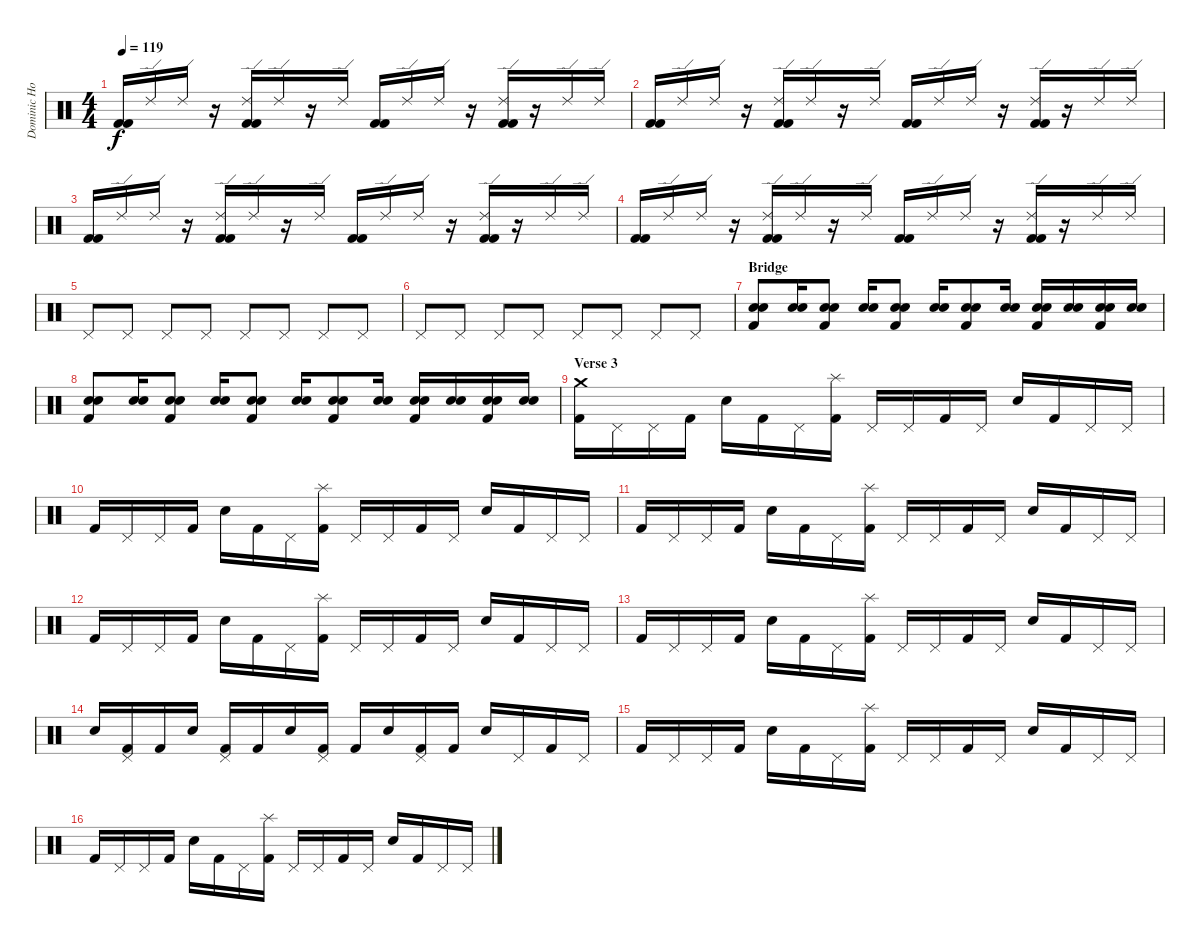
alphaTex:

\track ("Dominic Howard" "Dominic Ho") {instrument percussion}
\staff {score}
\articulation defaults
\ts (4 4)
\tempo 119
\clef neutral
\ks c
("Kick (hit) 2" "Kick (hit) 2").16{dy f} "Ride (edge) 2".16 "Ride (edge) 2".16 r.16 ("Ride (edge) 2" "Kick (hit) 2" "Kick (hit) 2").16 "Ride (edge) 2".16 r.16 "Ride (edge) 2".16 ("Kick (hit) 2" "Kick (hit) 2").16 "Ride (edge) 2".16 "Ride (edge) 2".16 r.16 ("Ride (edge) 2" "Kick (hit) 2" "Kick (hit) 2").16 r.16 "Ride (edge) 2".16 "Ride (edge) 2".16 |
("Kick (hit) 2" "Kick (hit) 2").16 "Ride (edge) 2".16 "Ride (edge) 2".16 r.16 ("Ride (edge) 2" "Kick (hit) 2" "Kick (hit) 2").16 "Ride (edge) 2".16 r.16 "Ride (edge) 2".16 ("Kick (hit) 2" "Kick (hit) 2").16 "Ride (edge) 2".16 "Ride (edge) 2".16 r.16 ("Ride (edge) 2" "Kick (hit) 2" "Kick (hit) 2").16 r.16 "Ride (edge) 2".16 "Ride (edge) 2".16 |
("Kick (hit) 2" "Kick (hit) 2").16 "Ride (edge) 2".16 "Ride (edge) 2".16 r.16 ("Ride (edge) 2" "Kick (hit) 2" "Kick (hit) 2").16 "Ride (edge) 2".16 r.16 "Ride (edge) 2".16 ("Kick (hit) 2" "Kick (hit) 2").16 "Ride (edge) 2".16 "Ride (edge) 2".16 r.16 ("Ride (edge) 2" "Kick (hit) 2" "Kick (hit) 2").16 r.16 "Ride (edge) 2".16 "Ride (edge) 2".16 |
("Kick (hit) 2" "Kick (hit) 2").16 "Ride (edge) 2".16 "Ride (edge) 2".16 r.16 ("Ride (edge) 2" "Kick (hit) 2" "Kick (hit) 2").16 "Ride (edge) 2".16 r.16 "Ride (edge) 2".16 ("Kick (hit) 2" "Kick (hit) 2").16 "Ride (edge) 2".16 "Ride (edge) 2".16 r.16 ("Ride (edge) 2" "Kick (hit) 2" "Kick (hit) 2").16 r.16 "Ride (edge) 2".16 "Ride (edge) 2".16 |
"Pedal Hi-Hat (hit)".8 "Pedal Hi-Hat (hit)".8 "Pedal Hi-Hat (hit)".8 "Pedal Hi-Hat (hit)".8 "Pedal Hi-Hat (hit)".8 "Pedal Hi-Hat (hit)".8 "Pedal Hi-Hat (hit)".8 "Pedal Hi-Hat (hit)".8 |
"Pedal Hi-Hat (hit)".8 "Pedal Hi-Hat (hit)".8 "Pedal Hi-Hat (hit)".8 "Pedal Hi-Hat (hit)".8 "Pedal Hi-Hat (hit)".8 "Pedal Hi-Hat (hit)".8 "Pedal Hi-Hat (hit)".8 "Pedal Hi-Hat (hit)".8 |
\section ("" "Bridge")
("Electric Snare (hit)" "Snare (hit) 2" "Kick (hit) 2").8 ("Electric Snare (hit)" "Snare (hit) 2").16 ("Electric Snare (hit)" "Snare (hit) 2" "Kick (hit) 2").8 ("Electric Snare (hit)" "Snare (hit) 2").16 ("Electric Snare (hit)" "Snare (hit) 2" "Kick (hit) 2").8 ("Electric Snare (hit)" "Snare (hit) 2").16 ("Electric Snare (hit)" "Snare (hit) 2" "Kick (hit) 2").8 ("Electric Snare (hit)" "Snare (hit) 2").16 ("Electric Snare (hit)" "Snare (hit) 2" "Kick (hit) 2").16 ("Electric Snare (hit)" "Snare (hit) 2").16 ("Electric Snare (hit)" "Snare (hit) 2" "Kick (hit) 2").16 ("Electric Snare (hit)" "Snare (hit) 2").16 |
("Electric Snare (hit)" "Snare (hit) 2" "Kick (hit) 2").8 ("Electric Snare (hit)" "Snare (hit) 2").16 ("Electric Snare (hit)" "Snare (hit) 2" "Kick (hit) 2").8 ("Electric Snare (hit)" "Snare (hit) 2").16 ("Electric Snare (hit)" "Snare (hit) 2" "Kick (hit) 2").8 ("Electric Snare (hit)" "Snare (hit) 2").16 ("Electric Snare (hit)" "Snare (hit) 2" "Kick (hit) 2").8 ("Electric Snare (hit)" "Snare (hit) 2").16 ("Electric Snare (hit)" "Snare (hit) 2" "Kick (hit) 2").16 ("Electric Snare (hit)" "Snare (hit) 2").16 ("Electric Snare (hit)" "Snare (hit) 2" "Kick (hit) 2").16 ("Electric Snare (hit)" "Snare (hit) 2").16 |
\section ("" "Verse 3")
("Crash medium (hit)" "Kick (hit) 2").16 "Pedal Hi-Hat (hit)".16 "Pedal Hi-Hat (hit)".16 "Kick (hit) 2".16 "Electric Snare (hit)".16 "Kick (hit) 2".16 "Pedal Hi-Hat (hit)".16 ("Splash (hit)" "Kick (hit) 2").16 "Pedal Hi-Hat (hit)".16 "Pedal Hi-Hat (hit)".16 "Kick (hit) 2".16 "Pedal Hi-Hat (hit)".16 "Electric Snare (hit)".16 "Kick (hit) 2".16 "Pedal Hi-Hat (hit)".16 "Pedal Hi-Hat (hit)".16 |
"Kick (hit) 2".16 "Pedal Hi-Hat (hit)".16 "Pedal Hi-Hat (hit)".16 "Kick (hit) 2".16 "Electric Snare (hit)".16 "Kick (hit) 2".16 "Pedal Hi-Hat (hit)".16 ("Splash (hit)" "Kick (hit) 2").16 "Pedal Hi-Hat (hit)".16 "Pedal Hi-Hat (hit)".16 "Kick (hit) 2".16 "Pedal Hi-Hat (hit)".16 "Electric Snare (hit)".16 "Kick (hit) 2".16 "Pedal Hi-Hat (hit)".16 "Pedal Hi-Hat (hit)".16 |
"Kick (hit) 2".16 "Pedal Hi-Hat (hit)".16 "Pedal Hi-Hat (hit)".16 "Kick (hit) 2".16 "Electric Snare (hit)".16 "Kick (hit) 2".16 "Pedal Hi-Hat (hit)".16 ("Splash (hit)" "Kick (hit) 2").16 "Pedal Hi-Hat (hit)".16 "Pedal Hi-Hat (hit)".16 "Kick (hit) 2".16 "Pedal Hi-Hat (hit)".16 "Electric Snare (hit)".16 "Kick (hit) 2".16 "Pedal Hi-Hat (hit)".16 "Pedal Hi-Hat (hit)".16 |
"Kick (hit) 2".16 "Pedal Hi-Hat (hit)".16 "Pedal Hi-Hat (hit)".16 "Kick (hit) 2".16 "Electric Snare (hit)".16 "Kick (hit) 2".16 "Pedal Hi-Hat (hit)".16 ("Splash (hit)" "Kick (hit) 2").16 "Pedal Hi-Hat (hit)".16 "Pedal Hi-Hat (hit)".16 "Kick (hit) 2".16 "Pedal Hi-Hat (hit)".16 "Electric Snare (hit)".16 "Kick (hit) 2".16 "Pedal Hi-Hat (hit)".16 "Pedal Hi-Hat (hit)".16 |
"Kick (hit) 2".16 "Pedal Hi-Hat (hit)".16 "Pedal Hi-Hat (hit)".16 "Kick (hit) 2".16 "Electric Snare (hit)".16 "Kick (hit) 2".16 "Pedal Hi-Hat (hit)".16 ("Splash (hit)" "Kick (hit) 2").16 "Pedal Hi-Hat (hit)".16 "Pedal Hi-Hat (hit)".16 "Kick (hit) 2".16 "Pedal Hi-Hat (hit)".16 "Electric Snare (hit)".16 "Kick (hit) 2".16 "Pedal Hi-Hat (hit)".16 "Pedal Hi-Hat (hit)".16 |
"Electric Snare (hit)".16 ("Pedal Hi-Hat (hit)" "Kick (hit) 2").16 "Kick (hit) 2".16 "Electric Snare (hit)".16 ("Pedal Hi-Hat (hit)" "Kick (hit) 2").16 "Kick (hit) 2".16 "Electric Snare (hit)".16 ("Pedal Hi-Hat (hit)" "Kick (hit) 2").16 "Kick (hit) 2".16 "Electric Snare (hit)".16 ("Pedal Hi-Hat (hit)" "Kick (hit) 2").16 "Kick (hit) 2".16 "Electric Snare (hit)".16 "Pedal Hi-Hat (hit)".16 "Kick (hit) 2".16 "Pedal Hi-Hat (hit)".16 |
"Kick (hit) 2".16 "Pedal Hi-Hat (hit)".16 "Pedal Hi-Hat (hit)".16 "Kick (hit) 2".16 "Electric Snare (hit)".16 "Kick (hit) 2".16 "Pedal Hi-Hat (hit)".16 ("Splash (hit)" "Kick (hit) 2").16 "Pedal Hi-Hat (hit)".16 "Pedal Hi-Hat (hit)".16 "Kick (hit) 2".16 "Pedal Hi-Hat (hit)".16 "Electric Snare (hit)".16 "Kick (hit) 2".16 "Pedal Hi-Hat (hit)".16 "Pedal Hi-Hat (hit)".16 |
"Kick (hit) 2".16 "Pedal Hi-Hat (hit)".16 "Pedal Hi-Hat (hit)".16 "Kick (hit) 2".16 "Electric Snare (hit)".16 "Kick (hit) 2".16 "Pedal Hi-Hat (hit)".16 ("Splash (hit)" "Kick (hit) 2").16 "Pedal Hi-Hat (hit)".16 "Pedal Hi-Hat (hit)".16 "Kick (hit) 2".16 "Pedal Hi-Hat (hit)".16 "Electric Snare (hit)".16 "Kick (hit) 2".16 "Pedal Hi-Hat (hit)".16 "Pedal Hi-Hat (hit)".16
